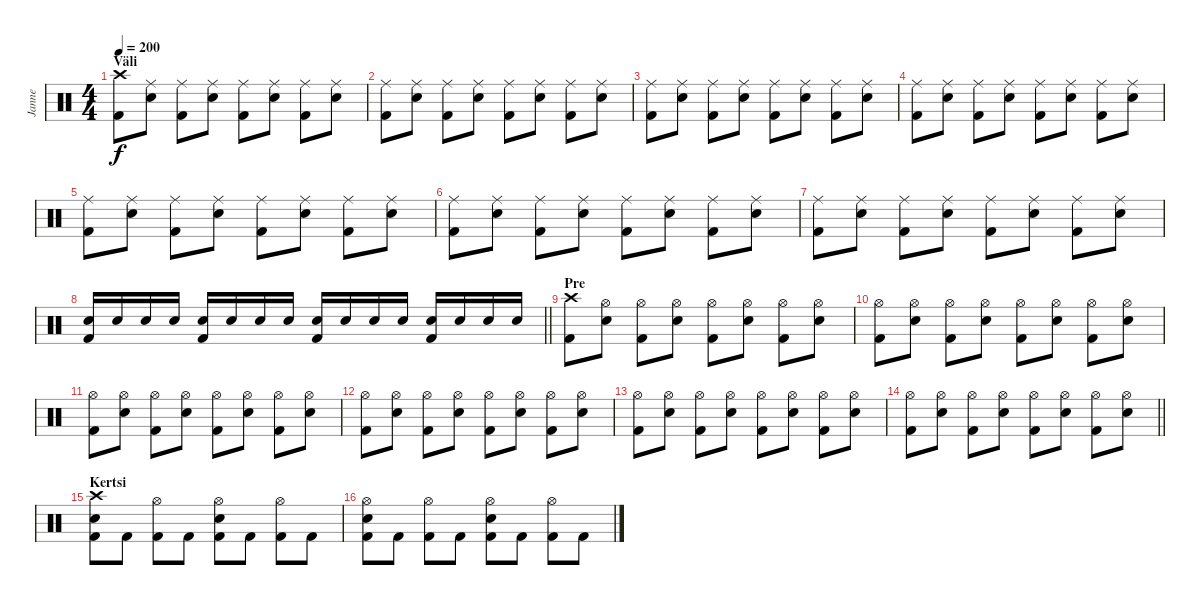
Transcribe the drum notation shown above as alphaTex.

\track ("Janne" "Janne") {instrument percussion}
\staff {score}
\articulation defaults
\ts (4 4)
\section ("" "Väli")
\tempo 200
\clef neutral
\ks c
("Crash high (hit)" "Kick (hit) 2").8{dy f} ("Ride (middle)" "Electric Snare (hit)").8 ("Ride (middle)" "Kick (hit) 2").8 ("Ride (middle)" "Electric Snare (hit)").8 ("Ride (middle)" "Kick (hit) 2").8 ("Ride (middle)" "Electric Snare (hit)").8 ("Ride (middle)" "Kick (hit) 2").8 ("Ride (middle)" "Electric Snare (hit)").8 |
("Ride (middle)" "Kick (hit) 2").8 ("Ride (middle)" "Electric Snare (hit)").8 ("Ride (middle)" "Kick (hit) 2").8 ("Ride (middle)" "Electric Snare (hit)").8 ("Ride (middle)" "Kick (hit) 2").8 ("Ride (middle)" "Electric Snare (hit)").8 ("Ride (middle)" "Kick (hit) 2").8 ("Ride (middle)" "Electric Snare (hit)").8 |
("Ride (middle)" "Kick (hit) 2").8 ("Ride (middle)" "Electric Snare (hit)").8 ("Ride (middle)" "Kick (hit) 2").8 ("Ride (middle)" "Electric Snare (hit)").8 ("Ride (middle)" "Kick (hit) 2").8 ("Ride (middle)" "Electric Snare (hit)").8 ("Ride (middle)" "Kick (hit) 2").8 ("Ride (middle)" "Electric Snare (hit)").8 |
("Ride (middle)" "Kick (hit) 2").8 ("Ride (middle)" "Electric Snare (hit)").8 ("Ride (middle)" "Kick (hit) 2").8 ("Ride (middle)" "Electric Snare (hit)").8 ("Ride (middle)" "Kick (hit) 2").8 ("Ride (middle)" "Electric Snare (hit)").8 ("Ride (middle)" "Kick (hit) 2").8 ("Ride (middle)" "Electric Snare (hit)").8 |
("Ride (middle)" "Kick (hit) 2").8 ("Ride (middle)" "Electric Snare (hit)").8 ("Ride (middle)" "Kick (hit) 2").8 ("Ride (middle)" "Electric Snare (hit)").8 ("Ride (middle)" "Kick (hit) 2").8 ("Ride (middle)" "Electric Snare (hit)").8 ("Ride (middle)" "Kick (hit) 2").8 ("Ride (middle)" "Electric Snare (hit)").8 |
("Ride (middle)" "Kick (hit) 2").8 ("Ride (middle)" "Electric Snare (hit)").8 ("Ride (middle)" "Kick (hit) 2").8 ("Ride (middle)" "Electric Snare (hit)").8 ("Ride (middle)" "Kick (hit) 2").8 ("Ride (middle)" "Electric Snare (hit)").8 ("Ride (middle)" "Kick (hit) 2").8 ("Ride (middle)" "Electric Snare (hit)").8 |
("Ride (middle)" "Kick (hit) 2").8 ("Ride (middle)" "Electric Snare (hit)").8 ("Ride (middle)" "Kick (hit) 2").8 ("Ride (middle)" "Electric Snare (hit)").8 ("Ride (middle)" "Kick (hit) 2").8 ("Ride (middle)" "Electric Snare (hit)").8 ("Ride (middle)" "Kick (hit) 2").8 ("Ride (middle)" "Electric Snare (hit)").8 |
\barLineRight lightlight
("Electric Snare (hit)" "Kick (hit) 2").16 "Electric Snare (hit)".16 "Electric Snare (hit)".16 "Electric Snare (hit)".16 ("Electric Snare (hit)" "Kick (hit) 2").16 "Electric Snare (hit)".16 "Electric Snare (hit)".16 "Electric Snare (hit)".16 ("Electric Snare (hit)" "Kick (hit) 2").16 "Electric Snare (hit)".16 "Electric Snare (hit)".16 "Electric Snare (hit)".16 ("Electric Snare (hit)" "Kick (hit) 2").16 "Electric Snare (hit)".16 "Electric Snare (hit)".16 "Electric Snare (hit)".16 |
\section ("" "Pre")
("Crash high (hit)" "Kick (hit) 2").8 ("Hi-Hat (open)" "Electric Snare (hit)").8 ("Hi-Hat (open)" "Kick (hit) 2").8 ("Hi-Hat (open)" "Electric Snare (hit)").8 ("Hi-Hat (open)" "Kick (hit) 2").8 ("Hi-Hat (open)" "Electric Snare (hit)").8 ("Hi-Hat (open)" "Kick (hit) 2").8 ("Hi-Hat (open)" "Electric Snare (hit)").8 |
("Hi-Hat (open)" "Kick (hit) 2").8 ("Hi-Hat (open)" "Electric Snare (hit)").8 ("Hi-Hat (open)" "Kick (hit) 2").8 ("Hi-Hat (open)" "Electric Snare (hit)").8 ("Hi-Hat (open)" "Kick (hit) 2").8 ("Hi-Hat (open)" "Electric Snare (hit)").8 ("Hi-Hat (open)" "Kick (hit) 2").8 ("Hi-Hat (open)" "Electric Snare (hit)").8 |
("Hi-Hat (open)" "Kick (hit) 2").8 ("Hi-Hat (open)" "Electric Snare (hit)").8 ("Hi-Hat (open)" "Kick (hit) 2").8 ("Hi-Hat (open)" "Electric Snare (hit)").8 ("Hi-Hat (open)" "Kick (hit) 2").8 ("Hi-Hat (open)" "Electric Snare (hit)").8 ("Hi-Hat (open)" "Kick (hit) 2").8 ("Hi-Hat (open)" "Electric Snare (hit)").8 |
("Hi-Hat (open)" "Kick (hit) 2").8 ("Hi-Hat (open)" "Electric Snare (hit)").8 ("Hi-Hat (open)" "Kick (hit) 2").8 ("Hi-Hat (open)" "Electric Snare (hit)").8 ("Hi-Hat (open)" "Kick (hit) 2").8 ("Hi-Hat (open)" "Electric Snare (hit)").8 ("Hi-Hat (open)" "Kick (hit) 2").8 ("Hi-Hat (open)" "Electric Snare (hit)").8 |
("Hi-Hat (open)" "Kick (hit) 2").8 ("Hi-Hat (open)" "Electric Snare (hit)").8 ("Hi-Hat (open)" "Kick (hit) 2").8 ("Hi-Hat (open)" "Electric Snare (hit)").8 ("Hi-Hat (open)" "Kick (hit) 2").8 ("Hi-Hat (open)" "Electric Snare (hit)").8 ("Hi-Hat (open)" "Kick (hit) 2").8 ("Hi-Hat (open)" "Electric Snare (hit)").8 |
\barLineRight lightlight
("Hi-Hat (open)" "Kick (hit) 2").8 ("Hi-Hat (open)" "Electric Snare (hit)").8 ("Hi-Hat (open)" "Kick (hit) 2").8 ("Hi-Hat (open)" "Electric Snare (hit)").8 ("Hi-Hat (open)" "Kick (hit) 2").8 ("Hi-Hat (open)" "Electric Snare (hit)").8 ("Hi-Hat (open)" "Kick (hit) 2").8 ("Hi-Hat (open)" "Electric Snare (hit)").8 |
\section ("" "Kertsi")
("Crash high (hit)" "Electric Snare (hit)" "Kick (hit) 2").8 "Kick (hit) 2".8 ("Hi-Hat (open)" "Kick (hit) 2").8 "Kick (hit) 2".8 ("Hi-Hat (open)" "Electric Snare (hit)" "Kick (hit) 2").8 "Kick (hit) 2".8 ("Hi-Hat (open)" "Kick (hit) 2").8 "Kick (hit) 2".8 |
("Hi-Hat (open)" "Electric Snare (hit)" "Kick (hit) 2").8 "Kick (hit) 2".8 ("Hi-Hat (open)" "Kick (hit) 2").8 "Kick (hit) 2".8 ("Hi-Hat (open)" "Electric Snare (hit)" "Kick (hit) 2").8 "Kick (hit) 2".8 ("Hi-Hat (open)" "Kick (hit) 2").8 "Kick (hit) 2".8
